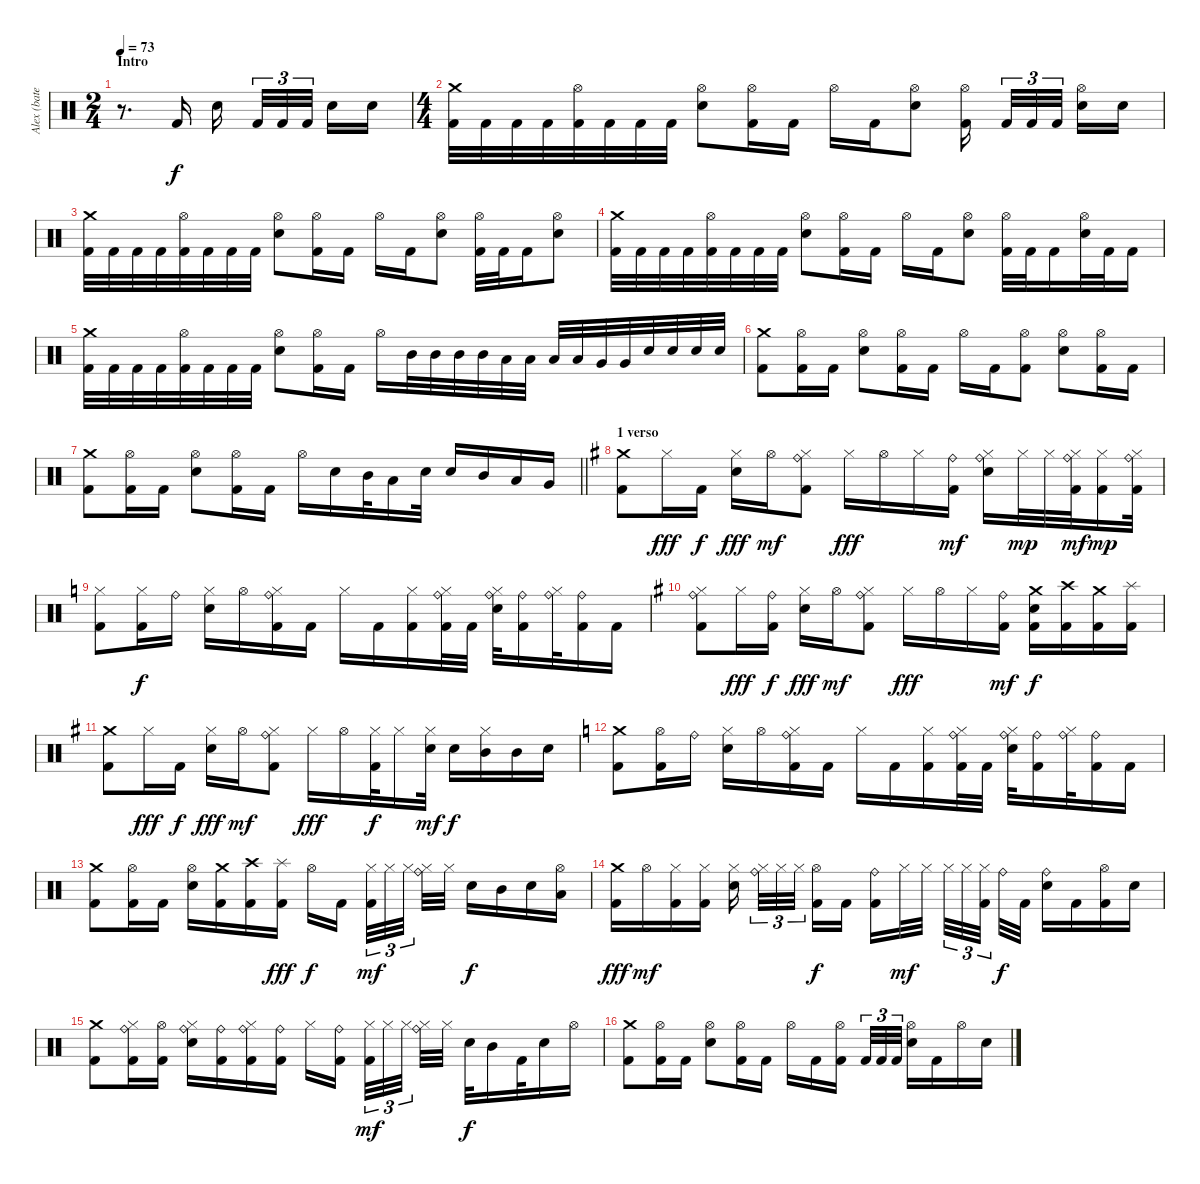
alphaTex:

\track ("Alex (bateria)" "Alex (bate") {instrument percussion}
\staff {score}
\articulation defaults
\ts (2 4)
\section ("" "Intro")
\tempo 73
\clef neutral
\ks c
r.8{d dy f} "Kick (hit) 2".16 "Electric Snare (hit)".16{beam splitsecondary} "Kick (hit) 2".32{tu (3 2)} "Kick (hit) 2".32{tu (3 2)} "Kick (hit) 2".32{tu (3 2) beam splitsecondary} "Electric Snare (hit)".16 "Electric Snare (hit)".16 |
\ts (4 4)
("Crash medium (hit)" "Kick (hit) 2").32 "Kick (hit) 2".32 "Kick (hit) 2".32 "Kick (hit) 2".32 ("Hi-Hat (open)" "Kick (hit) 2").32 "Kick (hit) 2".32 "Kick (hit) 2".32 "Kick (hit) 2".32 ("Hi-Hat (open)" "Electric Snare (hit)").8 ("Hi-Hat (open)" "Kick (hit) 2").16 "Kick (hit) 2".16 "Hi-Hat (open)".16 "Kick (hit) 2".16 ("Hi-Hat (open)" "Electric Snare (hit)").8 ("Hi-Hat (open)" "Kick (hit) 2").16{beam splitsecondary} "Kick (hit) 2".32{tu (3 2)} "Kick (hit) 2".32{tu (3 2)} "Kick (hit) 2".32{tu (3 2) beam splitsecondary} ("Hi-Hat (open)" "Electric Snare (hit)").16 "Electric Snare (hit)".16 |
("Crash medium (hit)" "Kick (hit) 2").32 "Kick (hit) 2".32 "Kick (hit) 2".32 "Kick (hit) 2".32 ("Hi-Hat (open)" "Kick (hit) 2").32 "Kick (hit) 2".32 "Kick (hit) 2".32 "Kick (hit) 2".32 ("Hi-Hat (open)" "Electric Snare (hit)").8 ("Hi-Hat (open)" "Kick (hit) 2").16 "Kick (hit) 2".16 "Hi-Hat (open)".16 "Kick (hit) 2".16 ("Hi-Hat (open)" "Electric Snare (hit)").8 ("Hi-Hat (open)" "Kick (hit) 2").32 "Kick (hit) 2".32 "Kick (hit) 2".16 ("Hi-Hat (open)" "Electric Snare (hit)").8 |
("Crash medium (hit)" "Kick (hit) 2").32 "Kick (hit) 2".32 "Kick (hit) 2".32 "Kick (hit) 2".32 ("Hi-Hat (open)" "Kick (hit) 2").32 "Kick (hit) 2".32 "Kick (hit) 2".32 "Kick (hit) 2".32 ("Hi-Hat (open)" "Electric Snare (hit)").8 ("Hi-Hat (open)" "Kick (hit) 2").16 "Kick (hit) 2".16 "Hi-Hat (open)".16 "Kick (hit) 2".16 ("Hi-Hat (open)" "Electric Snare (hit)").8 ("Hi-Hat (open)" "Kick (hit) 2").32 "Kick (hit) 2".32 "Kick (hit) 2".16 ("Hi-Hat (open)" "Electric Snare (hit)").32 "Kick (hit) 2".32 "Kick (hit) 2".16 |
("Crash medium (hit)" "Kick (hit) 2").32 "Kick (hit) 2".32 "Kick (hit) 2".32 "Kick (hit) 2".32 ("Hi-Hat (open)" "Kick (hit) 2").32 "Kick (hit) 2".32 "Kick (hit) 2".32 "Kick (hit) 2".32 ("Hi-Hat (open)" "Electric Snare (hit)").8 ("Hi-Hat (open)" "Kick (hit) 2").16 "Kick (hit) 2".16 "Hi-Hat (open)".16 "Mid Tom (hit)".32 "Mid Tom (hit)".32 "Mid Tom (hit)".32 "Mid Tom (hit)".32 "Low Tom (hit)".32 "Low Tom (hit)".32 "Low Tom (hit)".32 "Low Tom (hit)".32 "Very Low Tom (hit)".32 "Very Low Tom (hit)".32 "Electric Snare (hit)".32 "Electric Snare (hit)".32 "Electric Snare (hit)".32 "Electric Snare (hit)".32 |
("Crash medium (hit)" "Kick (hit) 2").8 ("Hi-Hat (open)" "Kick (hit) 2").16 "Kick (hit) 2".16 ("Hi-Hat (open)" "Electric Snare (hit)").8 ("Hi-Hat (open)" "Kick (hit) 2").16 "Kick (hit) 2".16 "Hi-Hat (open)".16 "Kick (hit) 2".16 ("Hi-Hat (open)" "Kick (hit) 2").8 ("Hi-Hat (open)" "Electric Snare (hit)").8 ("Hi-Hat (open)" "Kick (hit) 2").16 "Kick (hit) 2".16 |
\barLineRight lightlight
("Crash medium (hit)" "Kick (hit) 2").8 ("Hi-Hat (open)" "Kick (hit) 2").16 "Kick (hit) 2".16 ("Hi-Hat (open)" "Electric Snare (hit)").8 ("Hi-Hat (open)" "Kick (hit) 2").16 "Kick (hit) 2".16 "Hi-Hat (open)".16 "Electric Snare (hit)".16 "Mid Tom (hit)".32 "Low Tom (hit)".16 "Electric Snare (hit)".32 "Electric Snare (hit)".16 "Mid Tom (hit)".16 "Low Tom (hit)".16 "Very Low Tom (hit)".16 |
\section ("" "1 verso")
\ks g
("Crash medium (hit)" "Kick (hit) 2").8 "Hi-Hat (closed)".16{dy fff} "Kick (hit) 2".16{dy f} ("Hi-Hat (closed)" "Electric Snare (hit)").16{dy fff} "Hi-Hat (open)".16{dy mf} ("Ride (bell)" "Hi-Hat (closed)" "Kick (hit) 2").8 "Hi-Hat (closed)".16{dy fff} "Hi-Hat (open)".16 "Hi-Hat (closed)".16 ("Ride (bell)" "Kick (hit) 2").16{dy mf} ("Ride (bell)" "Hi-Hat (closed)" "Electric Snare (hit)").16 "Hi-Hat (closed)".32{dy mp} "Hi-Hat (closed)".32 ("Ride (bell)" "Hi-Hat (closed)" "Kick (hit) 2").32{dy mf} ("Hi-Hat (closed)" "Kick (hit) 2").16{dy mp} ("Ride (bell)" "Hi-Hat (closed)" "Kick (hit) 2").32 |
\ks c
("Hi-Hat (closed)" "Kick (hit) 2").8 ("Hi-Hat (closed)" "Kick (hit) 2").16{dy f} "Ride (bell)".16 ("Hi-Hat (closed)" "Electric Snare (hit)").16 "Hi-Hat (open)".16 ("Ride (bell)" "Hi-Hat (closed)" "Kick (hit) 2").16 "Kick (hit) 2".16 "Hi-Hat (closed)".16 "Kick (hit) 2".16 ("Hi-Hat (closed)" "Kick (hit) 2").16 ("Ride (bell)" "Hi-Hat (closed)" "Kick (hit) 2").32 "Kick (hit) 2".32 ("Ride (bell)" "Hi-Hat (closed)" "Electric Snare (hit)").32 ("Ride (bell)" "Kick (hit) 2").16 ("Ride (bell)" "Hi-Hat (closed)").32 ("Ride (bell)" "Kick (hit) 2").16 "Kick (hit) 2".16 |
\ks g
("Ride (bell)" "Hi-Hat (closed)" "Kick (hit) 2").8 "Hi-Hat (closed)".16{dy fff} ("Ride (bell)" "Kick (hit) 2").16{dy f} ("Hi-Hat (closed)" "Electric Snare (hit)").16{dy fff} "Hi-Hat (open)".16{dy mf} ("Ride (bell)" "Hi-Hat (closed)" "Kick (hit) 2").8 "Hi-Hat (closed)".16{dy fff} "Hi-Hat (open)".16 "Hi-Hat (closed)".16 ("Ride (bell)" "Kick (hit) 2").16{dy mf} ("Crash medium (hit)" "Electric Snare (hit)" "Kick (hit) 2").16{dy f} ("Crash high (hit)" "Kick (hit) 2").16 ("Crash medium (hit)" "Kick (hit) 2").16 ("Splash (hit)" "Kick (hit) 2").16 |
("Crash medium (hit)" "Kick (hit) 2").8 "Hi-Hat (closed)".16{dy fff} "Kick (hit) 2".16{dy f} ("Hi-Hat (closed)" "Electric Snare (hit)").16{dy fff} "Hi-Hat (open)".16{dy mf} ("Ride (bell)" "Hi-Hat (closed)" "Kick (hit) 2").8 "Hi-Hat (closed)".16{dy fff} "Hi-Hat (open)".16 ("Hi-Hat (closed)" "Kick (hit) 2").32{dy f} "Hi-Hat (closed)".16 ("Hi-Hat (closed)" "Electric Snare (hit)").32{dy mf} "Electric Snare (hit)".16{dy f} ("Hi-Hat (closed)" "Mid Tom (hit)").16 "Mid Tom (hit)".16 "Electric Snare (hit)".16 |
\ks c
("Crash medium (hit)" "Kick (hit) 2").8 ("Hi-Hat (open)" "Kick (hit) 2").16 "Ride (bell)".16 ("Hi-Hat (closed)" "Electric Snare (hit)").16 "Hi-Hat (open)".16 ("Ride (bell)" "Hi-Hat (closed)" "Kick (hit) 2").16 "Kick (hit) 2".16 "Hi-Hat (closed)".16 "Kick (hit) 2".16 ("Hi-Hat (closed)" "Kick (hit) 2").16 ("Ride (bell)" "Hi-Hat (closed)" "Kick (hit) 2").32 "Kick (hit) 2".32 ("Ride (bell)" "Hi-Hat (closed)" "Electric Snare (hit)").32 ("Ride (bell)" "Kick (hit) 2").16 ("Ride (bell)" "Hi-Hat (closed)").32 ("Ride (bell)" "Kick (hit) 2").16 "Kick (hit) 2".16 |
("Crash medium (hit)" "Kick (hit) 2").8 ("Hi-Hat (open)" "Kick (hit) 2").16 "Kick (hit) 2".16 ("Hi-Hat (open)" "Electric Snare (hit)").16 ("Crash medium (hit)" "Kick (hit) 2").16 ("Crash high (hit)" "Kick (hit) 2").16 ("Splash (hit)" "Kick (hit) 2").16{dy fff} "Hi-Hat (open)".16{dy f} "Kick (hit) 2".16{beam splitsecondary} ("Hi-Hat (closed)" "Kick (hit) 2").32{tu (3 2) dy mf} "Hi-Hat (closed)".32{tu (3 2)} "Hi-Hat (closed)".32{tu (3 2) beam splitsecondary} ("Ride (bell)" "Hi-Hat (closed)").32 "Hi-Hat (closed)".32 "Electric Snare (hit)".16{dy f} "Mid Tom (hit)".16 "Electric Snare (hit)".16 ("Hi-Hat (open)" "Low Tom (hit)").16 |
("Crash medium (hit)" "Kick (hit) 2").16{dy fff} "Hi-Hat (open)".16{dy mf} ("Hi-Hat (closed)" "Kick (hit) 2").16 ("Hi-Hat (closed)" "Kick (hit) 2").16 ("Hi-Hat (closed)" "Electric Snare (hit)").16{beam splitsecondary} ("Ride (bell)" "Hi-Hat (closed)").32{tu (3 2)} "Hi-Hat (closed)".32{tu (3 2)} "Hi-Hat (closed)".32{tu (3 2) beam splitsecondary} ("Hi-Hat (open)" "Kick (hit) 2").16{dy f} "Kick (hit) 2".16 ("Ride (bell)" "Kick (hit) 2").16 "Hi-Hat (closed)".32{dy mf} "Hi-Hat (closed)".32{beam splitsecondary} "Hi-Hat (closed)".32{tu (3 2)} "Hi-Hat (closed)".32{tu (3 2)} ("Hi-Hat (closed)" "Kick (hit) 2").32{tu (3 2) beam splitsecondary} "Ride (bell)".32{dy f} "Kick (hit) 2".32 ("Ride (bell)" "Electric Snare (hit)").16 "Kick (hit) 2".16 ("Hi-Hat (open)" "Kick (hit) 2").16 "Electric Snare (hit)".16 |
("Crash medium (hit)" "Kick (hit) 2").8 ("Ride (bell)" "Hi-Hat (closed)" "Kick (hit) 2").16 ("Hi-Hat (open)" "Kick (hit) 2").16 ("Ride (bell)" "Hi-Hat (closed)" "Electric Snare (hit)").16 ("Ride (bell)" "Kick (hit) 2").16 ("Ride (bell)" "Hi-Hat (closed)" "Kick (hit) 2").16 ("Ride (bell)" "Kick (hit) 2").16 "Hi-Hat (closed)".16 ("Ride (bell)" "Kick (hit) 2").16{beam splitsecondary} ("Hi-Hat (closed)" "Kick (hit) 2").32{tu (3 2) dy mf} "Hi-Hat (closed)".32{tu (3 2)} "Hi-Hat (closed)".32{tu (3 2) beam splitsecondary} ("Ride (bell)" "Hi-Hat (closed)").32 "Hi-Hat (closed)".32 "Electric Snare (hit)".32{dy f} "Mid Tom (hit)".16 "Kick (hit) 2".32 "Electric Snare (hit)".16 "Hi-Hat (open)".16 |
("Crash medium (hit)" "Kick (hit) 2").8 ("Hi-Hat (open)" "Kick (hit) 2").16 "Kick (hit) 2".16 ("Hi-Hat (open)" "Electric Snare (hit)").8 ("Hi-Hat (open)" "Kick (hit) 2").16 "Kick (hit) 2".16 "Hi-Hat (open)".16 "Kick (hit) 2".16 ("Hi-Hat (open)" "Kick (hit) 2").16{beam splitsecondary} "Kick (hit) 2".32{tu (3 2)} "Kick (hit) 2".32{tu (3 2)} "Kick (hit) 2".32{tu (3 2)} ("Hi-Hat (open)" "Electric Snare (hit)").16 "Kick (hit) 2".16 "Hi-Hat (open)".16 "Electric Snare (hit)".16
